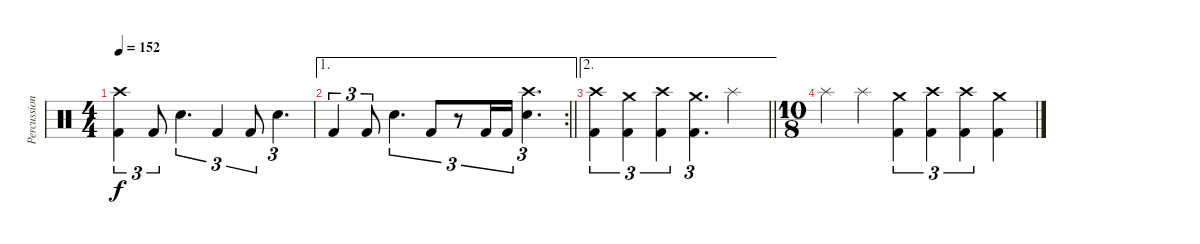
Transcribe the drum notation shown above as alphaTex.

\track ("Percussion" "Percussion") {instrument percussion}
\staff {score}
\articulation defaults
\ts (4 4)
\tempo 152
\clef neutral
\ks c
("Kick (hit) 2" "Crash high (hit)").4{tu (3 2) dy f} "Kick (hit) 2".8{tu (3 2)} "Electric Snare (hit)".4{d tu (3 2)} "Kick (hit) 2".4{tu (3 2)} "Kick (hit) 2".8{tu (3 2)} "Electric Snare (hit)".4{d tu (3 2)} |
\ae 1
\rc 2
\barLineRight lightlight "Kick (hit) 2".4{tu (3 2)} "Kick (hit) 2".8{tu (3 2)} "Electric Snare (hit)".4{d tu (3 2)} "Kick (hit) 2".8{tu (3 2)}
r.8{tu (3 2)} "Kick (hit) 2".16{tu (3 2)} "Kick (hit) 2".16{tu (3 2)} ("Electric Snare (hit)" "Crash high (hit)").4{d tu (3 2)} |
\ae 2
\barLineRight lightlight
("Kick (hit) 2" "Crash high (hit)").4{tu (3 2)} ("Kick (hit) 2" "Crash medium (hit)").4{tu (3 2)} ("Kick (hit) 2" "Crash high (hit)").4{tu (3 2)} ("Kick (hit) 2" "Crash medium (hit)").4{d tu (3 2)} "Splash (hit)".4 |
\ts (10 8)
"Splash (hit)".4 "Splash (hit)".4 ("Kick (hit) 2" "Crash medium (hit)").4{tu (3 2)} ("Kick (hit) 2" "Crash high (hit)").4{tu (3 2)} ("Kick (hit) 2" "Crash high (hit)").4{tu (3 2)} ("Kick (hit) 2" "Crash medium (hit)").4
